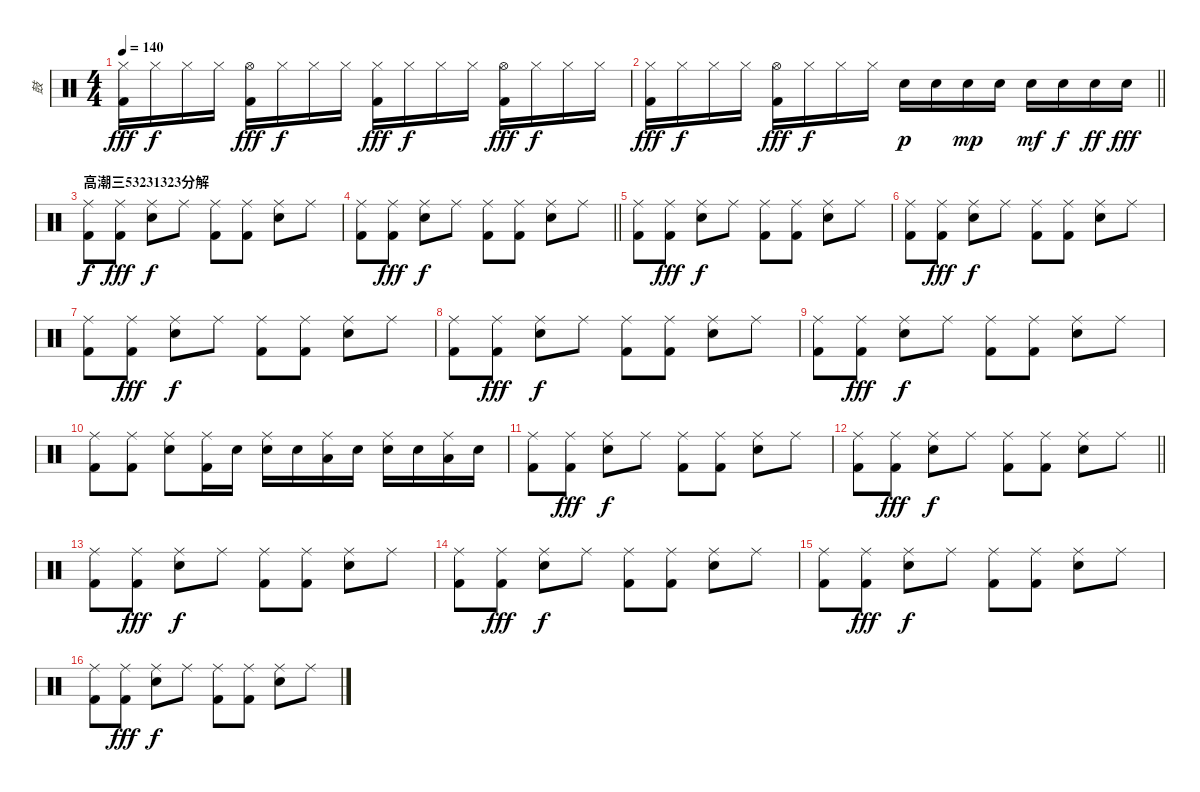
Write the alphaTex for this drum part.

\track ("鼓" "鼓") {instrument percussion}
\staff {score}
\articulation defaults
\ts (4 4)
\tempo 140
\clef neutral
\ks c
("Hi-Hat (closed)" "Kick (hit) 2").16{dy fff} "Hi-Hat (closed)".16{dy f} "Hi-Hat (closed)".16 "Hi-Hat (closed)".16 ("Hi-Hat (open)" "Kick (hit) 2").16{dy fff} "Hi-Hat (closed)".16{dy f} "Hi-Hat (closed)".16 "Hi-Hat (closed)".16 ("Hi-Hat (closed)" "Kick (hit) 2").16{dy fff} "Hi-Hat (closed)".16{dy f} "Hi-Hat (closed)".16 "Hi-Hat (closed)".16 ("Hi-Hat (open)" "Kick (hit) 2").16{dy fff} "Hi-Hat (closed)".16{dy f} "Hi-Hat (closed)".16 "Hi-Hat (closed)".16 |
\barLineRight lightlight
("Hi-Hat (closed)" "Kick (hit) 2").16{dy fff} "Hi-Hat (closed)".16{dy f} "Hi-Hat (closed)".16 "Hi-Hat (closed)".16 ("Hi-Hat (open)" "Kick (hit) 2").16{dy fff} "Hi-Hat (closed)".16{dy f} "Hi-Hat (closed)".16 "Hi-Hat (closed)".16 "Snare (hit) 2".16{dy p} "Snare (hit) 2".16 "Snare (hit) 2".16{dy mp} "Snare (hit) 2".16 "Snare (hit) 2".16{dy mf} "Snare (hit) 2".16{dy f} "Snare (hit) 2".16{dy ff} "Snare (hit) 2".16{dy fff} |
\section ("" "高潮三53231323分解")
("Ride (middle)" "Kick (hit) 2").8{dy f} ("Ride (middle)" "Kick (hit) 2").8{dy fff} ("Ride (middle)" "Snare (hit) 2").8{dy f} "Ride (middle)".8 ("Ride (middle)" "Kick (hit) 2").8 ("Ride (middle)" "Kick (hit) 2").8 ("Ride (middle)" "Snare (hit) 2").8 "Ride (middle)".8 |
\barLineRight lightlight
("Ride (middle)" "Kick (hit) 2").8 ("Ride (middle)" "Kick (hit) 2").8{dy fff} ("Ride (middle)" "Snare (hit) 2").8{dy f} "Ride (middle)".8 ("Ride (middle)" "Kick (hit) 2").8 ("Ride (middle)" "Kick (hit) 2").8 ("Ride (middle)" "Snare (hit) 2").8 "Ride (middle)".8 |
("Ride (middle)" "Kick (hit) 2").8 ("Ride (middle)" "Kick (hit) 2").8{dy fff} ("Ride (middle)" "Snare (hit) 2").8{dy f} "Ride (middle)".8 ("Ride (middle)" "Kick (hit) 2").8 ("Ride (middle)" "Kick (hit) 2").8 ("Ride (middle)" "Snare (hit) 2").8 "Ride (middle)".8 |
("Ride (middle)" "Kick (hit) 2").8 ("Ride (middle)" "Kick (hit) 2").8{dy fff} ("Ride (middle)" "Snare (hit) 2").8{dy f} "Ride (middle)".8 ("Ride (middle)" "Kick (hit) 2").8 ("Ride (middle)" "Kick (hit) 2").8 ("Ride (middle)" "Snare (hit) 2").8 "Ride (middle)".8 |
("Ride (middle)" "Kick (hit) 2").8 ("Ride (middle)" "Kick (hit) 2").8{dy fff} ("Ride (middle)" "Snare (hit) 2").8{dy f} "Ride (middle)".8 ("Ride (middle)" "Kick (hit) 2").8 ("Ride (middle)" "Kick (hit) 2").8 ("Ride (middle)" "Snare (hit) 2").8 "Ride (middle)".8 |
("Ride (middle)" "Kick (hit) 2").8 ("Ride (middle)" "Kick (hit) 2").8{dy fff} ("Ride (middle)" "Snare (hit) 2").8{dy f} "Ride (middle)".8 ("Ride (middle)" "Kick (hit) 2").8 ("Ride (middle)" "Kick (hit) 2").8 ("Ride (middle)" "Snare (hit) 2").8 "Ride (middle)".8 |
("Ride (middle)" "Kick (hit) 2").8 ("Ride (middle)" "Kick (hit) 2").8{dy fff} ("Ride (middle)" "Snare (hit) 2").8{dy f} "Ride (middle)".8 ("Ride (middle)" "Kick (hit) 2").8 ("Ride (middle)" "Kick (hit) 2").8 ("Ride (middle)" "Snare (hit) 2").8 "Ride (middle)".8 |
("Ride (middle)" "Kick (hit) 2").8 ("Ride (middle)" "Kick (hit) 2").8 ("Ride (middle)" "Snare (hit) 2").8 ("Ride (middle)" "Kick (hit) 2").16 "Snare (hit) 2".16 ("Ride (middle)" "Snare (hit) 2").16 "Snare (hit) 2".16 ("Ride (middle)" "Low Tom (hit)").16 "Snare (hit) 2".16 ("Ride (middle)" "Snare (hit) 2").16 "Snare (hit) 2".16 ("Ride (middle)" "Low Tom (hit)").16 "Snare (hit) 2".16 |
("Ride (middle)" "Kick (hit) 2").8 ("Ride (middle)" "Kick (hit) 2").8{dy fff} ("Ride (middle)" "Snare (hit) 2").8{dy f} "Ride (middle)".8 ("Ride (middle)" "Kick (hit) 2").8 ("Ride (middle)" "Kick (hit) 2").8 ("Ride (middle)" "Snare (hit) 2").8 "Ride (middle)".8 |
\barLineRight lightlight
("Ride (middle)" "Kick (hit) 2").8 ("Ride (middle)" "Kick (hit) 2").8{dy fff} ("Ride (middle)" "Snare (hit) 2").8{dy f} "Ride (middle)".8 ("Ride (middle)" "Kick (hit) 2").8 ("Ride (middle)" "Kick (hit) 2").8 ("Ride (middle)" "Snare (hit) 2").8 "Ride (middle)".8 |
("Ride (middle)" "Kick (hit) 2").8 ("Ride (middle)" "Kick (hit) 2").8{dy fff} ("Ride (middle)" "Snare (hit) 2").8{dy f} "Ride (middle)".8 ("Ride (middle)" "Kick (hit) 2").8 ("Ride (middle)" "Kick (hit) 2").8 ("Ride (middle)" "Snare (hit) 2").8 "Ride (middle)".8 |
("Ride (middle)" "Kick (hit) 2").8 ("Ride (middle)" "Kick (hit) 2").8{dy fff} ("Ride (middle)" "Snare (hit) 2").8{dy f} "Ride (middle)".8 ("Ride (middle)" "Kick (hit) 2").8 ("Ride (middle)" "Kick (hit) 2").8 ("Ride (middle)" "Snare (hit) 2").8 "Ride (middle)".8 |
("Ride (middle)" "Kick (hit) 2").8 ("Ride (middle)" "Kick (hit) 2").8{dy fff} ("Ride (middle)" "Snare (hit) 2").8{dy f} "Ride (middle)".8 ("Ride (middle)" "Kick (hit) 2").8 ("Ride (middle)" "Kick (hit) 2").8 ("Ride (middle)" "Snare (hit) 2").8 "Ride (middle)".8 |
("Ride (middle)" "Kick (hit) 2").8 ("Ride (middle)" "Kick (hit) 2").8{dy fff} ("Ride (middle)" "Snare (hit) 2").8{dy f} "Ride (middle)".8 ("Ride (middle)" "Kick (hit) 2").8 ("Ride (middle)" "Kick (hit) 2").8 ("Ride (middle)" "Snare (hit) 2").8 "Ride (middle)".8
